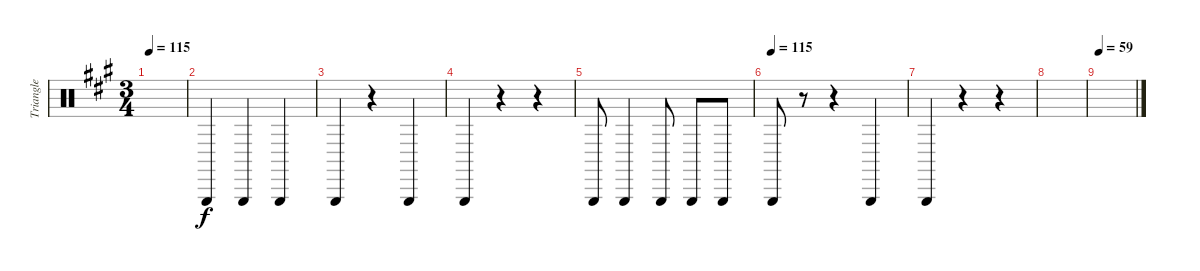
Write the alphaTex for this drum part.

\track ("Triangle" "Triangle") {instrument percussion}
\staff {score}
\articulation defaults
\ts (3 4)
\tempo 115
\clef neutral
\ks a
|
"Triangle (hit)".4 "Triangle (hit)".4 "Triangle (hit)".4 |
"Triangle (hit)".4 r.4 "Triangle (hit)".4 |
"Triangle (hit)".4 r.4 r.4 |
"Triangle (hit)".8 "Triangle (hit)".4 "Triangle (hit)".8 "Triangle (hit)".8 "Triangle (hit)".8 |
\tempo (115)
"Triangle (hit)".8 r.8 r.4 "Triangle (hit)".4 |
"Triangle (hit)".4 r.4 r.4 |
|
\tempo 59
